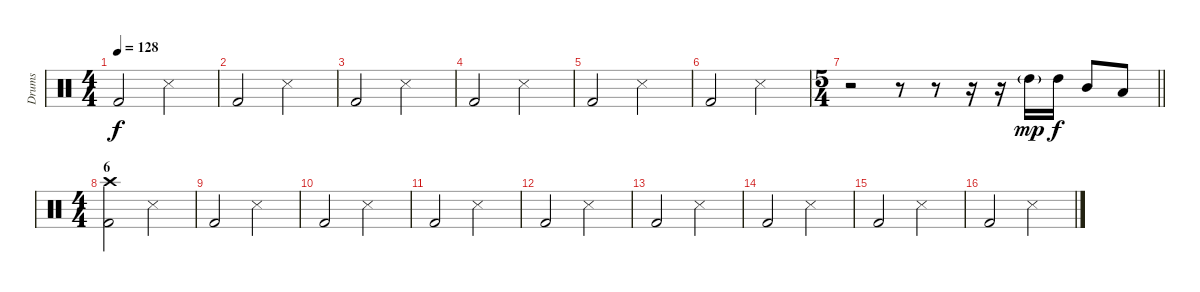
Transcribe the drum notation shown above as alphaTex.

\track ("Drums" "Drums") {instrument percussion}
\staff {score}
\articulation defaults
\ts (4 4)
\tempo 128
\clef neutral
\ks c "Kick (hit) 2".2{dy f} "Snare (side stick) 3".2
|
"Kick (hit) 2".2 "Snare (side stick) 3".2 |
"Kick (hit) 2".2 "Snare (side stick) 3".2 |
"Kick (hit) 2".2 "Snare (side stick) 3".2 |
"Kick (hit) 2".2 "Snare (side stick) 3".2 |
"Kick (hit) 2".2 "Snare (side stick) 3".2 |
\ts (5 4)
\barLineRight lightlight
r.2 r.8 r.8 r.16 r.16 "High Tom (hit)"{g}.16{dy mp} "High Tom (hit)".16{dy f} "Mid Tom (hit)".8 "Low Tom (hit)".8 |
\ts (4 4)
\section ("" "6")
("Crash high (hit)" "Kick (hit) 2").2 "Snare (side stick) 3".2 |
"Kick (hit) 2".2 "Snare (side stick) 3".2 |
"Kick (hit) 2".2 "Snare (side stick) 3".2 |
"Kick (hit) 2".2 "Snare (side stick) 3".2 |
"Kick (hit) 2".2 "Snare (side stick) 3".2 |
"Kick (hit) 2".2 "Snare (side stick) 3".2 |
"Kick (hit) 2".2 "Snare (side stick) 3".2 |
"Kick (hit) 2".2 "Snare (side stick) 3".2 |
"Kick (hit) 2".2 "Snare (side stick) 3".2
